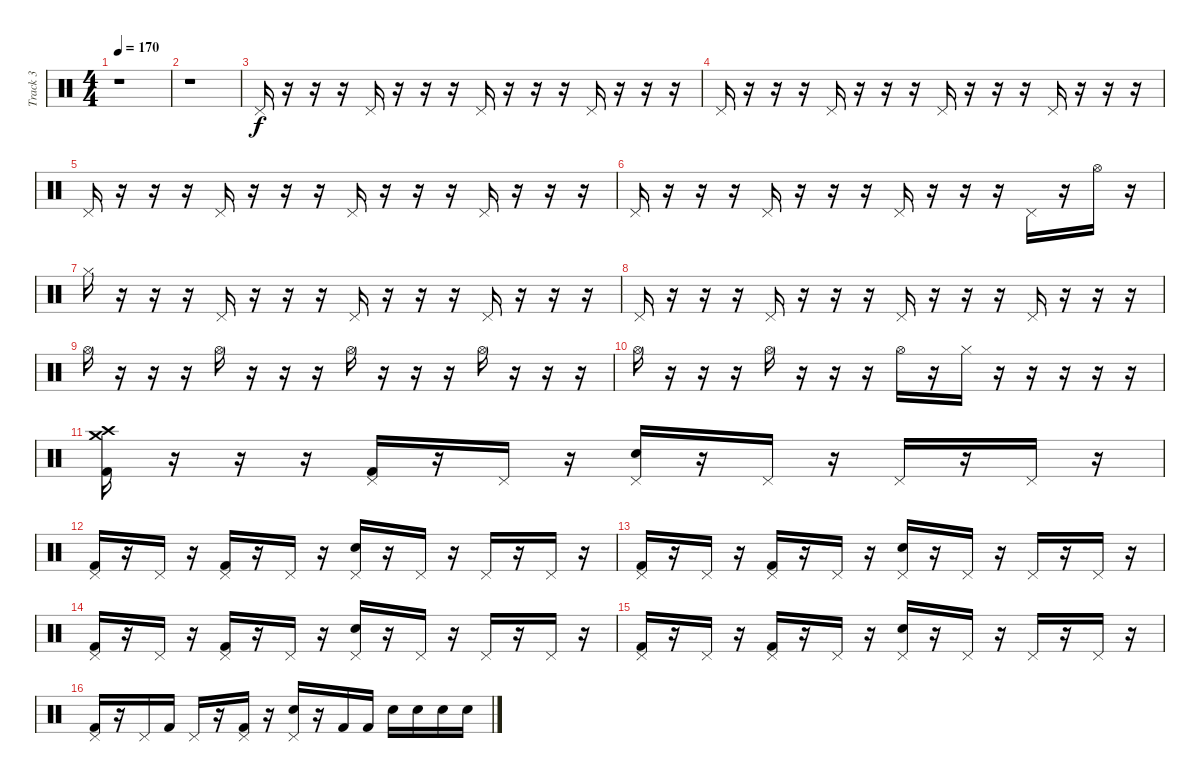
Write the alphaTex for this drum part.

\track ("Track 3" "Track 3") {instrument percussion}
\staff {score}
\articulation defaults
\ts (4 4)
\tempo 170
\clef neutral
\ks c
r.1{dy f} |
r.1 |
"Pedal Hi-Hat (hit)".16 r.16 r.16 r.16 "Pedal Hi-Hat (hit)".16 r.16 r.16 r.16 "Pedal Hi-Hat (hit)".16 r.16 r.16 r.16 "Pedal Hi-Hat (hit)".16 r.16 r.16 r.16 |
"Pedal Hi-Hat (hit)".16 r.16 r.16 r.16 "Pedal Hi-Hat (hit)".16 r.16 r.16 r.16 "Pedal Hi-Hat (hit)".16 r.16 r.16 r.16 "Pedal Hi-Hat (hit)".16 r.16 r.16 r.16 |
"Pedal Hi-Hat (hit)".16 r.16 r.16 r.16 "Pedal Hi-Hat (hit)".16 r.16 r.16 r.16 "Pedal Hi-Hat (hit)".16 r.16 r.16 r.16 "Pedal Hi-Hat (hit)".16 r.16 r.16 r.16 |
"Pedal Hi-Hat (hit)".16 r.16 r.16 r.16 "Pedal Hi-Hat (hit)".16 r.16 r.16 r.16 "Pedal Hi-Hat (hit)".16 r.16 r.16 r.16 "Pedal Hi-Hat (hit)".16 r.16 "Hi-Hat (open)".16 r.16 |
"Hi-Hat (closed)".16 r.16 r.16 r.16 "Pedal Hi-Hat (hit)".16 r.16 r.16 r.16 "Pedal Hi-Hat (hit)".16 r.16 r.16 r.16 "Pedal Hi-Hat (hit)".16 r.16 r.16 r.16 |
"Pedal Hi-Hat (hit)".16 r.16 r.16 r.16 "Pedal Hi-Hat (hit)".16 r.16 r.16 r.16 "Pedal Hi-Hat (hit)".16 r.16 r.16 r.16 "Pedal Hi-Hat (hit)".16 r.16 r.16 r.16 |
"Hi-Hat (open)".16 r.16 r.16 r.16 "Hi-Hat (open)".16 r.16 r.16 r.16 "Hi-Hat (open)".16 r.16 r.16 r.16 "Hi-Hat (open)".16 r.16 r.16 r.16 |
"Hi-Hat (open)".16 r.16 r.16 r.16 "Hi-Hat (open)".16 r.16 r.16 r.16 "Hi-Hat (open)".16 r.16 "Hi-Hat (closed)".16 r.16 r.16 r.16 r.16 r.16 |
("Kick (hit) 2" "Crash high (hit)" "Crash medium (hit)").16 r.16 r.16 r.16 ("Kick (hit) 2" "Pedal Hi-Hat (hit)").16 r.16 "Pedal Hi-Hat (hit)".16 r.16 ("Pedal Hi-Hat (hit)" "Electric Snare (hit)").16 r.16 "Pedal Hi-Hat (hit)".16 r.16 "Pedal Hi-Hat (hit)".16 r.16 "Pedal Hi-Hat (hit)".16 r.16 |
("Pedal Hi-Hat (hit)" "Kick (hit) 2").16 r.16 "Pedal Hi-Hat (hit)".16 r.16 ("Pedal Hi-Hat (hit)" "Kick (hit) 2").16 r.16 "Pedal Hi-Hat (hit)".16 r.16 ("Pedal Hi-Hat (hit)" "Electric Snare (hit)").16 r.16 "Pedal Hi-Hat (hit)".16 r.16 "Pedal Hi-Hat (hit)".16 r.16 "Pedal Hi-Hat (hit)".16 r.16 |
("Pedal Hi-Hat (hit)" "Kick (hit) 2").16 r.16 "Pedal Hi-Hat (hit)".16 r.16 ("Pedal Hi-Hat (hit)" "Kick (hit) 2").16 r.16 "Pedal Hi-Hat (hit)".16 r.16 ("Pedal Hi-Hat (hit)" "Electric Snare (hit)").16 r.16 "Pedal Hi-Hat (hit)".16 r.16 "Pedal Hi-Hat (hit)".16 r.16 "Pedal Hi-Hat (hit)".16 r.16 |
("Pedal Hi-Hat (hit)" "Kick (hit) 2").16 r.16 "Pedal Hi-Hat (hit)".16 r.16 ("Pedal Hi-Hat (hit)" "Kick (hit) 2").16 r.16 "Pedal Hi-Hat (hit)".16 r.16 ("Pedal Hi-Hat (hit)" "Electric Snare (hit)").16 r.16 "Pedal Hi-Hat (hit)".16 r.16 "Pedal Hi-Hat (hit)".16 r.16 "Pedal Hi-Hat (hit)".16 r.16 |
("Pedal Hi-Hat (hit)" "Kick (hit) 2").16 r.16 "Pedal Hi-Hat (hit)".16 r.16 ("Pedal Hi-Hat (hit)" "Kick (hit) 2").16 r.16 "Pedal Hi-Hat (hit)".16 r.16 ("Pedal Hi-Hat (hit)" "Electric Snare (hit)").16 r.16 "Pedal Hi-Hat (hit)".16 r.16 "Pedal Hi-Hat (hit)".16 r.16 "Pedal Hi-Hat (hit)".16 r.16 |
("Pedal Hi-Hat (hit)" "Kick (hit) 2").16 r.16 "Pedal Hi-Hat (hit)".16 "Kick (hit) 2".16 "Pedal Hi-Hat (hit)".16 r.16 ("Pedal Hi-Hat (hit)" "Kick (hit) 2").16 r.16 ("Pedal Hi-Hat (hit)" "Electric Snare (hit)").16 r.16 "Kick (hit) 2".16 "Kick (hit) 2".16 "Electric Snare (hit)".16 "Electric Snare (hit)".16 "Electric Snare (hit)".16 "Electric Snare (hit)".16
